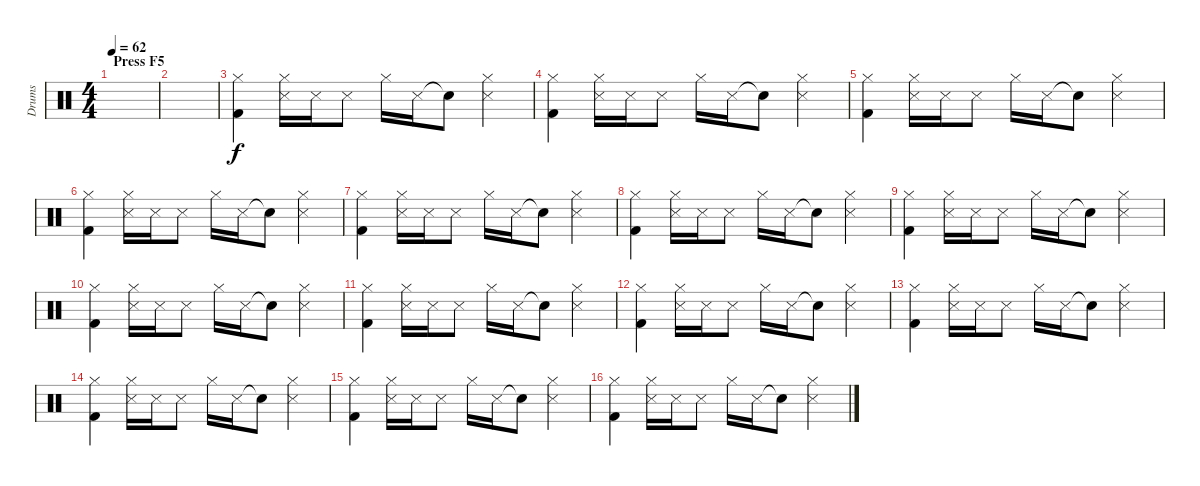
\track ("Drums" "Drums") {instrument percussion}
\staff {score}
\articulation defaults
\ts (4 4)
\section ("" "Press F5")
\tempo 62
\clef neutral
\ks c
|
|
("Hi-Hat (closed)" "Kick (hit) 2").4 ("Hi-Hat (closed)" "Snare (side stick) 3").16 "Snare (side stick) 3".16 "Snare (side stick) 3".8 "Hi-Hat (closed)".16 "Snare (side stick) 3".16 "Snare (hit)"{t}.8 ("Hi-Hat (closed)" "Snare (side stick) 3").4 |
("Hi-Hat (closed)" "Kick (hit) 2").4 ("Hi-Hat (closed)" "Snare (side stick) 3").16 "Snare (side stick) 3".16 "Snare (side stick) 3".8 "Hi-Hat (closed)".16 "Snare (side stick) 3".16 "Snare (hit)"{t}.8 ("Hi-Hat (closed)" "Snare (side stick) 3").4 |
("Hi-Hat (closed)" "Kick (hit) 2").4 ("Hi-Hat (closed)" "Snare (side stick) 3").16 "Snare (side stick) 3".16 "Snare (side stick) 3".8 "Hi-Hat (closed)".16 "Snare (side stick) 3".16 "Snare (hit)"{t}.8 ("Hi-Hat (closed)" "Snare (side stick) 3").4 |
("Hi-Hat (closed)" "Kick (hit) 2").4 ("Hi-Hat (closed)" "Snare (side stick) 3").16 "Snare (side stick) 3".16 "Snare (side stick) 3".8 "Hi-Hat (closed)".16 "Snare (side stick) 3".16 "Snare (hit)"{t}.8 ("Hi-Hat (closed)" "Snare (side stick) 3").4 |
("Hi-Hat (closed)" "Kick (hit) 2").4 ("Hi-Hat (closed)" "Snare (side stick) 3").16 "Snare (side stick) 3".16 "Snare (side stick) 3".8 "Hi-Hat (closed)".16 "Snare (side stick) 3".16 "Snare (hit)"{t}.8 ("Hi-Hat (closed)" "Snare (side stick) 3").4 |
("Hi-Hat (closed)" "Kick (hit) 2").4 ("Hi-Hat (closed)" "Snare (side stick) 3").16 "Snare (side stick) 3".16 "Snare (side stick) 3".8 "Hi-Hat (closed)".16 "Snare (side stick) 3".16 "Snare (hit)"{t}.8 ("Hi-Hat (closed)" "Snare (side stick) 3").4 |
("Hi-Hat (closed)" "Kick (hit) 2").4 ("Hi-Hat (closed)" "Snare (side stick) 3").16 "Snare (side stick) 3".16 "Snare (side stick) 3".8 "Hi-Hat (closed)".16 "Snare (side stick) 3".16 "Snare (hit)"{t}.8 ("Hi-Hat (closed)" "Snare (side stick) 3").4 |
("Hi-Hat (closed)" "Kick (hit) 2").4 ("Hi-Hat (closed)" "Snare (side stick) 3").16 "Snare (side stick) 3".16 "Snare (side stick) 3".8 "Hi-Hat (closed)".16 "Snare (side stick) 3".16 "Snare (hit)"{t}.8 ("Hi-Hat (closed)" "Snare (side stick) 3").4 |
("Hi-Hat (closed)" "Kick (hit) 2").4 ("Hi-Hat (closed)" "Snare (side stick) 3").16 "Snare (side stick) 3".16 "Snare (side stick) 3".8 "Hi-Hat (closed)".16 "Snare (side stick) 3".16 "Snare (hit)"{t}.8 ("Hi-Hat (closed)" "Snare (side stick) 3").4 |
("Hi-Hat (closed)" "Kick (hit) 2").4 ("Hi-Hat (closed)" "Snare (side stick) 3").16 "Snare (side stick) 3".16 "Snare (side stick) 3".8 "Hi-Hat (closed)".16 "Snare (side stick) 3".16 "Snare (hit)"{t}.8 ("Hi-Hat (closed)" "Snare (side stick) 3").4 |
("Hi-Hat (closed)" "Kick (hit) 2").4 ("Hi-Hat (closed)" "Snare (side stick) 3").16 "Snare (side stick) 3".16 "Snare (side stick) 3".8 "Hi-Hat (closed)".16 "Snare (side stick) 3".16 "Snare (hit)"{t}.8 ("Hi-Hat (closed)" "Snare (side stick) 3").4 |
("Hi-Hat (closed)" "Kick (hit) 2").4 ("Hi-Hat (closed)" "Snare (side stick) 3").16 "Snare (side stick) 3".16 "Snare (side stick) 3".8 "Hi-Hat (closed)".16 "Snare (side stick) 3".16 "Snare (hit)"{t}.8 ("Hi-Hat (closed)" "Snare (side stick) 3").4 |
("Hi-Hat (closed)" "Kick (hit) 2").4 ("Hi-Hat (closed)" "Snare (side stick) 3").16 "Snare (side stick) 3".16 "Snare (side stick) 3".8 "Hi-Hat (closed)".16 "Snare (side stick) 3".16 "Snare (hit)"{t}.8 ("Hi-Hat (closed)" "Snare (side stick) 3").4 |
("Hi-Hat (closed)" "Kick (hit) 2").4 ("Hi-Hat (closed)" "Snare (side stick) 3").16 "Snare (side stick) 3".16 "Snare (side stick) 3".8 "Hi-Hat (closed)".16 "Snare (side stick) 3".16 "Snare (hit)"{t}.8 ("Hi-Hat (closed)" "Snare (side stick) 3").4
